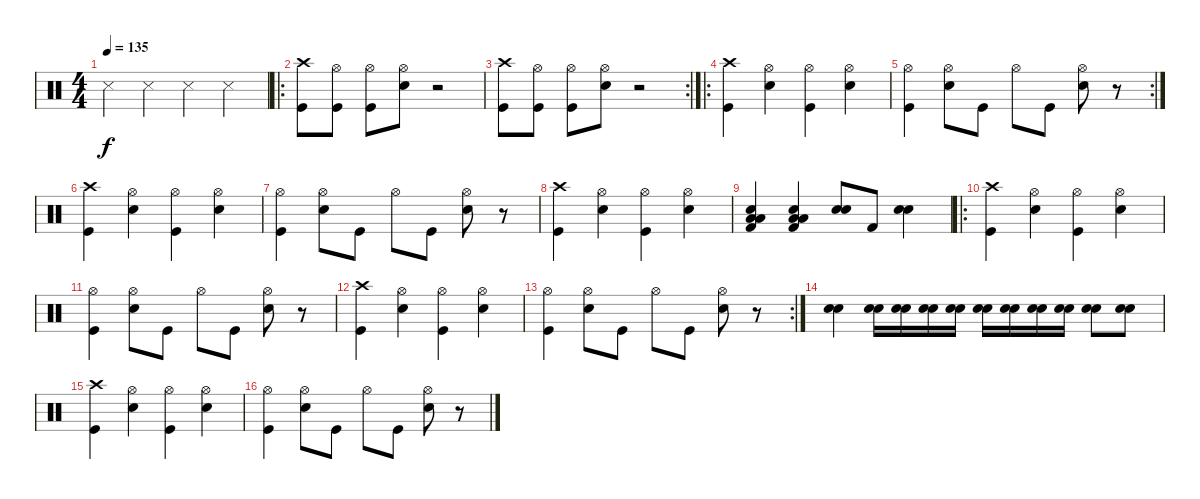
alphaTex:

\track "" {instrument percussion}
\staff {score}
\articulation defaults
\ts (4 4)
\tempo 135
\clef neutral
\ks c "Snare (side stick) 3".4{dy f} "Snare (side stick) 3".4 "Snare (side stick) 3".4 "Snare (side stick) 3".4
|
\ro
("Kick (hit)" "Crash high (hit)").8 ("Kick (hit)" "Hi-Hat (open)").8 ("Hi-Hat (open)" "Kick (hit)").8 ("Snare (hit) 2" "Hi-Hat (open)").8 r.2 |
\rc 2
("Kick (hit)" "Crash high (hit)").8 ("Kick (hit)" "Hi-Hat (open)").8 ("Hi-Hat (open)" "Kick (hit)").8 ("Snare (hit) 2" "Hi-Hat (open)").8 r.2 |
\ro
("Kick (hit)" "Crash high (hit)").4 ("Snare (hit) 2" "Hi-Hat (open)").4 ("Hi-Hat (open)" "Kick (hit)").4 ("Snare (hit) 2" "Hi-Hat (open)").4 |
\rc 2
("Kick (hit)" "Hi-Hat (open)").4 ("Snare (hit) 2" "Hi-Hat (open)").8 "Kick (hit)".8 "Hi-Hat (open)".8 "Kick (hit)".8 ("Snare (hit) 2" "Hi-Hat (open)").8 r.8 |
("Kick (hit)" "Crash high (hit)").4 ("Snare (hit) 2" "Hi-Hat (open)").4 ("Hi-Hat (open)" "Kick (hit)").4 ("Snare (hit) 2" "Hi-Hat (open)").4 |
("Kick (hit)" "Hi-Hat (open)").4 ("Snare (hit) 2" "Hi-Hat (open)").8 "Kick (hit)".8 "Hi-Hat (open)".8 "Kick (hit)".8 ("Snare (hit) 2" "Hi-Hat (open)").8 r.8 |
("Kick (hit)" "Crash high (hit)").4 ("Snare (hit) 2" "Hi-Hat (open)").4 ("Hi-Hat (open)" "Kick (hit)").4 ("Snare (hit) 2" "Hi-Hat (open)").4 |
("Electric Snare (hit)" "Low Floor Tom (hit)" "Low Floor Tom (hit)" "Kick (hit) 2").4 ("Electric Snare (hit)" "Low Floor Tom (hit)" "Low Floor Tom (hit)" "Kick (hit) 2").4 ("Electric Snare (hit)" "Electric Snare (hit)").8 "Kick (hit) 2".8 ("Electric Snare (hit)" "Electric Snare (hit)").4 |
\ro
("Kick (hit)" "Crash high (hit)").4 ("Snare (hit) 2" "Hi-Hat (open)").4 ("Hi-Hat (open)" "Kick (hit)").4 ("Snare (hit) 2" "Hi-Hat (open)").4 |
("Kick (hit)" "Hi-Hat (open)").4 ("Snare (hit) 2" "Hi-Hat (open)").8 "Kick (hit)".8 "Hi-Hat (open)".8 "Kick (hit)".8 ("Snare (hit) 2" "Hi-Hat (open)").8 r.8 |
("Kick (hit)" "Crash high (hit)").4 ("Snare (hit) 2" "Hi-Hat (open)").4 ("Hi-Hat (open)" "Kick (hit)").4 ("Snare (hit) 2" "Hi-Hat (open)").4 |
\rc 2
("Kick (hit)" "Hi-Hat (open)").4 ("Snare (hit) 2" "Hi-Hat (open)").8 "Kick (hit)".8 "Hi-Hat (open)".8 "Kick (hit)".8 ("Snare (hit) 2" "Hi-Hat (open)").8 r.8 |
("Electric Snare (hit)" "Electric Snare (hit)").4 ("Electric Snare (hit)" "Electric Snare (hit)").16 ("Electric Snare (hit)" "Electric Snare (hit)").16 ("Electric Snare (hit)" "Electric Snare (hit)").16 ("Electric Snare (hit)" "Electric Snare (hit)").16 ("Electric Snare (hit)" "Electric Snare (hit)").16 ("Electric Snare (hit)" "Electric Snare (hit)").16 ("Electric Snare (hit)" "Electric Snare (hit)").16 ("Electric Snare (hit)" "Electric Snare (hit)").16 ("Electric Snare (hit)" "Electric Snare (hit)").8 ("Electric Snare (hit)" "Electric Snare (hit)").8 |
("Kick (hit)" "Crash high (hit)").4 ("Snare (hit) 2" "Hi-Hat (open)").4 ("Hi-Hat (open)" "Kick (hit)").4 ("Snare (hit) 2" "Hi-Hat (open)").4 |
("Kick (hit)" "Hi-Hat (open)").4 ("Snare (hit) 2" "Hi-Hat (open)").8 "Kick (hit)".8 "Hi-Hat (open)".8 "Kick (hit)".8 ("Snare (hit) 2" "Hi-Hat (open)").8 r.8
